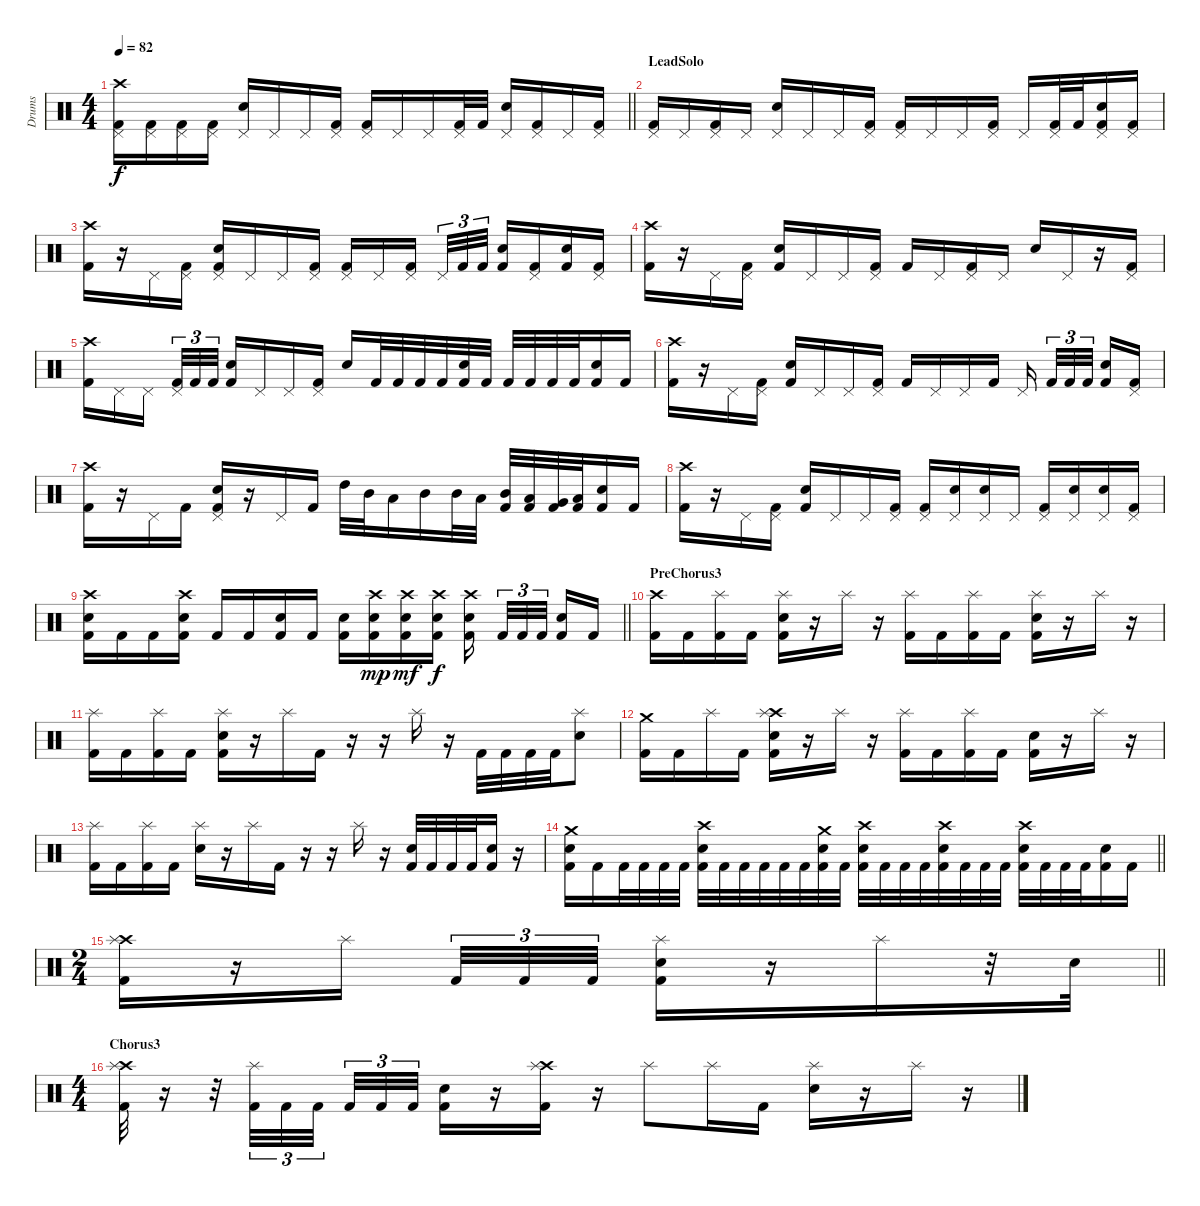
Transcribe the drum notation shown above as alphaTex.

\track ("Drums" "Drums") {instrument percussion}
\staff {score}
\articulation defaults
\ts (4 4)
\tempo 82
\clef neutral
\barLineRight lightlight
\ks c
("Crash high (hit)" "Pedal Hi-Hat (hit)" "Kick (hit) 2").16{dy f} ("Pedal Hi-Hat (hit)" "Kick (hit) 2").16 ("Pedal Hi-Hat (hit)" "Kick (hit) 2").16 ("Pedal Hi-Hat (hit)" "Kick (hit) 2").16 ("Pedal Hi-Hat (hit)" "Snare (hit) 2").16 "Pedal Hi-Hat (hit)".16 "Pedal Hi-Hat (hit)".16 ("Pedal Hi-Hat (hit)" "Kick (hit) 2").16 ("Pedal Hi-Hat (hit)" "Kick (hit) 2").16 "Pedal Hi-Hat (hit)".16 "Pedal Hi-Hat (hit)".16 ("Pedal Hi-Hat (hit)" "Kick (hit) 2").32 "Kick (hit) 2".32 ("Pedal Hi-Hat (hit)" "Snare (hit) 2").16 ("Pedal Hi-Hat (hit)" "Kick (hit) 2").16 "Pedal Hi-Hat (hit)".16 ("Pedal Hi-Hat (hit)" "Kick (hit) 2").16 |
\section ("" "LeadSolo")
("Pedal Hi-Hat (hit)" "Kick (hit) 2").16 "Pedal Hi-Hat (hit)".16 ("Pedal Hi-Hat (hit)" "Kick (hit) 2").16 "Pedal Hi-Hat (hit)".16 ("Pedal Hi-Hat (hit)" "Snare (hit) 2").16 "Pedal Hi-Hat (hit)".16 "Pedal Hi-Hat (hit)".16 ("Pedal Hi-Hat (hit)" "Kick (hit) 2").16 ("Pedal Hi-Hat (hit)" "Kick (hit) 2").16 "Pedal Hi-Hat (hit)".16 "Pedal Hi-Hat (hit)".16 ("Pedal Hi-Hat (hit)" "Kick (hit) 2").16 "Pedal Hi-Hat (hit)".16 ("Pedal Hi-Hat (hit)" "Kick (hit) 2").32 "Kick (hit) 2".32 ("Pedal Hi-Hat (hit)" "Snare (hit) 2" "Kick (hit) 2").16 ("Pedal Hi-Hat (hit)" "Kick (hit) 2").16 |
("Crash high (hit)" "Kick (hit) 2").16 r.16 "Pedal Hi-Hat (hit)".16 ("Pedal Hi-Hat (hit)" "Kick (hit) 2").16 ("Pedal Hi-Hat (hit)" "Snare (hit) 2" "Kick (hit) 2").16 "Pedal Hi-Hat (hit)".16 "Pedal Hi-Hat (hit)".16 ("Pedal Hi-Hat (hit)" "Kick (hit) 2").16 ("Pedal Hi-Hat (hit)" "Kick (hit) 2").16 "Pedal Hi-Hat (hit)".16 ("Pedal Hi-Hat (hit)" "Kick (hit) 2").16{beam splitsecondary} "Pedal Hi-Hat (hit)".32{tu (3 2)} "Kick (hit) 2".32{tu (3 2)} "Kick (hit) 2".32{tu (3 2)} ("Snare (hit) 2" "Kick (hit) 2").16 ("Pedal Hi-Hat (hit)" "Kick (hit) 2").16 ("Snare (hit) 2" "Kick (hit) 2").16 ("Pedal Hi-Hat (hit)" "Kick (hit) 2").16 |
("Crash high (hit)" "Kick (hit) 2").16 r.16 "Pedal Hi-Hat (hit)".16 ("Pedal Hi-Hat (hit)" "Kick (hit) 2").16 ("Snare (hit) 2" "Kick (hit) 2").16 "Pedal Hi-Hat (hit)".16 "Pedal Hi-Hat (hit)".16 ("Pedal Hi-Hat (hit)" "Kick (hit) 2").16 "Kick (hit) 2".16 "Pedal Hi-Hat (hit)".16 ("Pedal Hi-Hat (hit)" "Kick (hit) 2").16 "Pedal Hi-Hat (hit)".16 "Snare (hit) 2".16 "Pedal Hi-Hat (hit)".16 r.16 ("Pedal Hi-Hat (hit)" "Kick (hit) 2").16 |
("Crash high (hit)" "Kick (hit) 2").16 "Pedal Hi-Hat (hit)".16 "Pedal Hi-Hat (hit)".16{beam splitsecondary} ("Pedal Hi-Hat (hit)" "Kick (hit) 2").32{tu (3 2)} "Kick (hit) 2".32{tu (3 2)} "Kick (hit) 2".32{tu (3 2)} ("Snare (hit) 2" "Kick (hit) 2").16 "Pedal Hi-Hat (hit)".16 "Pedal Hi-Hat (hit)".16 ("Pedal Hi-Hat (hit)" "Kick (hit) 2").16 "Snare (hit) 2".16 "Kick (hit) 2".32 "Kick (hit) 2".32 "Kick (hit) 2".32 "Kick (hit) 2".32 ("Snare (hit) 2" "Kick (hit) 2").32 "Kick (hit) 2".32 "Kick (hit) 2".32 "Kick (hit) 2".32 "Kick (hit) 2".32 "Kick (hit) 2".32 ("Snare (hit) 2" "Kick (hit) 2").16 "Kick (hit) 2".16 |
("Crash high (hit)" "Kick (hit) 2").16 r.16 "Pedal Hi-Hat (hit)".16 ("Pedal Hi-Hat (hit)" "Kick (hit) 2").16 ("Snare (hit) 2" "Kick (hit) 2").16 "Pedal Hi-Hat (hit)".16 "Pedal Hi-Hat (hit)".16 ("Pedal Hi-Hat (hit)" "Kick (hit) 2").16 "Kick (hit) 2".16 "Pedal Hi-Hat (hit)".16 "Pedal Hi-Hat (hit)".16 "Kick (hit) 2".16 "Pedal Hi-Hat (hit)".16{beam splitsecondary} "Kick (hit) 2".32{tu (3 2)} "Kick (hit) 2".32{tu (3 2)} "Kick (hit) 2".32{tu (3 2) beam splitsecondary} ("Snare (hit) 2" "Kick (hit) 2").16 ("Pedal Hi-Hat (hit)" "Kick (hit) 2").16 |
("Crash high (hit)" "Kick (hit) 2").16 r.16 "Pedal Hi-Hat (hit)".16 "Kick (hit) 2".16 ("Pedal Hi-Hat (hit)" "Snare (hit) 2" "Kick (hit) 2").16 r.16 "Pedal Hi-Hat (hit)".16 "Kick (hit) 2".16 "High Tom (hit)".32 "Mid Tom (hit)".32 "Low Tom (hit)".16 "Mid Tom (hit)".16 "Mid Tom (hit)".32 "Low Tom (hit)".32 ("Mid Tom (hit)" "Kick (hit) 2").32 ("Low Tom (hit)" "Kick (hit) 2").32 ("Very Low Tom (hit)" "Kick (hit) 2").32 ("Low Tom (hit)" "Kick (hit) 2").32 ("Snare (hit) 2" "Kick (hit) 2").16 "Kick (hit) 2".16 |
("Crash high (hit)" "Kick (hit) 2").16 r.16 "Pedal Hi-Hat (hit)".16 ("Pedal Hi-Hat (hit)" "Kick (hit) 2").16 ("Snare (hit) 2" "Kick (hit) 2").16 "Pedal Hi-Hat (hit)".16 "Pedal Hi-Hat (hit)".16 ("Pedal Hi-Hat (hit)" "Kick (hit) 2").16 ("Pedal Hi-Hat (hit)" "Kick (hit) 2").16 ("Pedal Hi-Hat (hit)" "Snare (hit) 2").16 ("Pedal Hi-Hat (hit)" "Snare (hit) 2").16 "Pedal Hi-Hat (hit)".16 ("Pedal Hi-Hat (hit)" "Kick (hit) 2").16 ("Pedal Hi-Hat (hit)" "Snare (hit) 2").16 ("Pedal Hi-Hat (hit)" "Snare (hit) 2").16 ("Pedal Hi-Hat (hit)" "Kick (hit) 2").16 |
\barLineRight lightlight
("Crash high (hit)" "Snare (hit) 2" "Kick (hit) 2").16 "Kick (hit) 2".16 "Kick (hit) 2".16 ("Crash high (hit)" "Snare (hit) 2" "Kick (hit) 2").16 "Kick (hit) 2".16 "Kick (hit) 2".16 ("Snare (hit) 2" "Kick (hit) 2").16 "Kick (hit) 2".16 ("Snare (hit) 2" "Kick (hit) 2").16 ("Crash high (hit)" "Snare (hit) 2" "Kick (hit) 2").16{dy mp} ("Crash high (hit)" "Snare (hit) 2" "Kick (hit) 2").16{dy mf} ("Crash high (hit)" "Snare (hit) 2" "Kick (hit) 2").16{dy f} ("Crash high (hit)" "Snare (hit) 2" "Kick (hit) 2").16{beam splitsecondary} "Kick (hit) 2".32{tu (3 2)} "Kick (hit) 2".32{tu (3 2)} "Kick (hit) 2".32{tu (3 2) beam splitsecondary} ("Snare (hit) 2" "Kick (hit) 2").16 "Kick (hit) 2".16 |
\section ("" "PreChorus3")
("Crash high (hit)" "Kick (hit) 2").16 "Kick (hit) 2".16 ("Splash (hit)" "Kick (hit) 2").16 "Kick (hit) 2".16 ("Splash (hit)" "Snare (hit) 2" "Kick (hit) 2").16 r.16 "Splash (hit)".16 r.16 ("Splash (hit)" "Kick (hit) 2").16 "Kick (hit) 2".16 ("Splash (hit)" "Kick (hit) 2").16 "Kick (hit) 2".16 ("Splash (hit)" "Snare (hit) 2" "Kick (hit) 2").16 r.16 "Splash (hit)".16 r.16 |
("Splash (hit)" "Kick (hit) 2").16 "Kick (hit) 2".16 ("Splash (hit)" "Kick (hit) 2").16 "Kick (hit) 2".16 ("Splash (hit)" "Snare (hit) 2" "Kick (hit) 2").16 r.16 "Splash (hit)".16 "Kick (hit) 2".16 r.16 r.16 "Splash (hit)".16 r.16 "Kick (hit) 2".32 "Kick (hit) 2".32 "Kick (hit) 2".32 "Kick (hit) 2".32 ("Splash (hit)" "Snare (hit) 2").8 |
("Crash medium (hit)" "Kick (hit) 2").16 "Kick (hit) 2".16 "Splash (hit)".16 "Kick (hit) 2".16 ("Crash high (hit)" "Splash (hit)" "Snare (hit) 2" "Kick (hit) 2").16 r.16 "Splash (hit)".16 r.16 ("Splash (hit)" "Kick (hit) 2").16 "Kick (hit) 2".16 ("Splash (hit)" "Kick (hit) 2").16 "Kick (hit) 2".16 ("Snare (hit) 2" "Kick (hit) 2").16 r.16 "Splash (hit)".16 r.16 |
("Splash (hit)" "Kick (hit) 2").16 "Kick (hit) 2".16 ("Splash (hit)" "Kick (hit) 2").16 "Kick (hit) 2".16 ("Splash (hit)" "Snare (hit) 2").16 r.16 "Splash (hit)".16 "Kick (hit) 2".16 r.16 r.16 "Splash (hit)".16 r.16 ("Snare (hit) 2" "Kick (hit) 2").32 "Kick (hit) 2".32 "Kick (hit) 2".32 "Kick (hit) 2".32 ("Snare (hit) 2" "Kick (hit) 2").16 r.16 |
\barLineRight lightlight
("Crash medium (hit)" "Snare (hit) 2" "Kick (hit) 2").16 "Kick (hit) 2".16 "Kick (hit) 2".32 "Kick (hit) 2".32 "Kick (hit) 2".32 "Kick (hit) 2".32 ("Crash high (hit)" "Snare (hit) 2" "Kick (hit) 2").32 "Kick (hit) 2".32 "Kick (hit) 2".32 "Kick (hit) 2".32 "Kick (hit) 2".32 "Kick (hit) 2".32 ("Crash medium (hit)" "Snare (hit) 2" "Kick (hit) 2").32 "Kick (hit) 2".32 ("Crash high (hit)" "Snare (hit) 2" "Kick (hit) 2").32 "Kick (hit) 2".32 "Kick (hit) 2".32 "Kick (hit) 2".32 ("Crash high (hit)" "Snare (hit) 2" "Kick (hit) 2").32 "Kick (hit) 2".32 "Kick (hit) 2".32 "Kick (hit) 2".32 ("Crash high (hit)" "Snare (hit) 2" "Kick (hit) 2").32 "Kick (hit) 2".32 "Kick (hit) 2".32 "Kick (hit) 2".32 ("Snare (hit) 2" "Kick (hit) 2").16 "Kick (hit) 2".16 |
\ts (2 4)
\barLineRight lightlight
("Crash high (hit)" "Splash (hit)" "Kick (hit) 2").16 r.16 "Splash (hit)".16{beam splitsecondary} "Kick (hit) 2".32{tu (3 2)} "Kick (hit) 2".32{tu (3 2)} "Kick (hit) 2".32{tu (3 2)} ("Splash (hit)" "Snare (hit) 2" "Kick (hit) 2").16 r.16 "Splash (hit)".16 r.32 "Snare (hit) 2".32 |
\ts (4 4)
\section ("" "Chorus3")
("Crash high (hit)" "Splash (hit)" "Kick (hit) 2").32 r.16 r.32 ("Splash (hit)" "Kick (hit) 2").32{tu (3 2)} "Kick (hit) 2".32{tu (3 2)} "Kick (hit) 2".32{tu (3 2) beam splitsecondary} "Kick (hit) 2".32{tu (3 2)} "Kick (hit) 2".32{tu (3 2)} "Kick (hit) 2".32{tu (3 2)} ("Snare (hit) 2" "Kick (hit) 2").16 r.16 ("Crash high (hit)" "Splash (hit)" "Kick (hit) 2").16 r.16 "Splash (hit)".8 "Splash (hit)".16 "Kick (hit) 2".16 ("Splash (hit)" "Snare (hit) 2").16 r.16 "Splash (hit)".16 r.16
